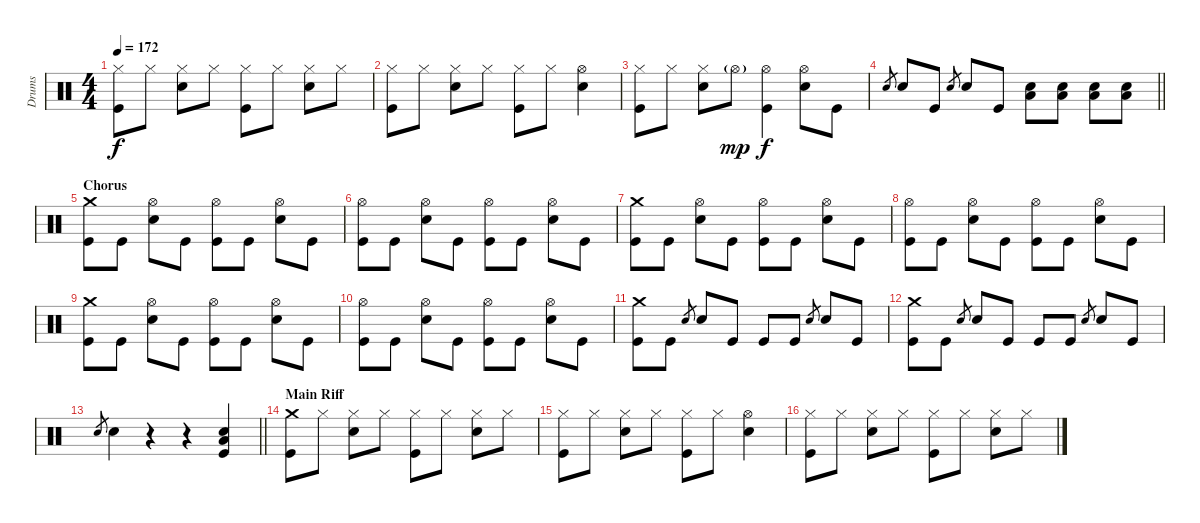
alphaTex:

\track ("Drums" "Drums") {instrument percussion}
\staff {score}
\articulation defaults
\ts (4 4)
\tempo 172
\clef neutral
\ks c
("Hi-Hat (closed)" "Kick (hit)").8{dy f} "Hi-Hat (closed)".8 ("Hi-Hat (closed)" "Snare (hit) 2").8 "Hi-Hat (closed)".8 ("Hi-Hat (closed)" "Kick (hit)").8 "Hi-Hat (closed)".8 ("Hi-Hat (closed)" "Snare (hit) 2").8 "Hi-Hat (closed)".8 |
("Hi-Hat (closed)" "Kick (hit)").8 "Hi-Hat (closed)".8 ("Hi-Hat (closed)" "Snare (hit) 2").8 "Hi-Hat (closed)".8 ("Hi-Hat (closed)" "Kick (hit)").8 "Hi-Hat (closed)".8 ("Hi-Hat (open)" "Snare (hit) 2").4 |
("Hi-Hat (closed)" "Kick (hit)").8 "Hi-Hat (closed)".8 ("Hi-Hat (closed)" "Snare (hit) 2").8 "Hi-Hat (open)"{g}.8{dy mp} ("Hi-Hat (open)" "Kick (hit)").4{dy f} ("Hi-Hat (open)" "Snare (hit) 2").8 "Kick (hit)".8 |
\barLineRight lightlight "Snare (hit) 2".8{gr} "Snare (hit) 2".8 "Kick (hit)".8 "Snare (hit) 2".8{gr} "Snare (hit) 2".8 "Kick (hit)".8
("Snare (hit) 2" "Low Floor Tom (hit)").8 ("Snare (hit) 2" "Low Floor Tom (hit)").8 ("Snare (hit) 2" "Low Floor Tom (hit)").8 ("Snare (hit) 2" "Low Floor Tom (hit)").8 |
\section ("" "Chorus")
("Crash medium (hit)" "Kick (hit)").8 "Kick (hit)".8 ("Hi-Hat (open)" "Snare (hit) 2").8 "Kick (hit)".8 ("Hi-Hat (open)" "Kick (hit)").8 "Kick (hit)".8 ("Hi-Hat (open)" "Snare (hit) 2").8 "Kick (hit)".8 |
("Hi-Hat (open)" "Kick (hit)").8 "Kick (hit)".8 ("Hi-Hat (open)" "Snare (hit) 2").8 "Kick (hit)".8 ("Hi-Hat (open)" "Kick (hit)").8 "Kick (hit)".8 ("Hi-Hat (open)" "Snare (hit) 2").8 "Kick (hit)".8 |
("Crash medium (hit)" "Kick (hit)").8 "Kick (hit)".8 ("Hi-Hat (open)" "Snare (hit) 2").8 "Kick (hit)".8 ("Hi-Hat (open)" "Kick (hit)").8 "Kick (hit)".8 ("Hi-Hat (open)" "Snare (hit) 2").8 "Kick (hit)".8 |
("Hi-Hat (open)" "Kick (hit)").8 "Kick (hit)".8 ("Hi-Hat (open)" "Snare (hit) 2").8 "Kick (hit)".8 ("Hi-Hat (open)" "Kick (hit)").8 "Kick (hit)".8 ("Hi-Hat (open)" "Snare (hit) 2").8 "Kick (hit)".8 |
("Crash medium (hit)" "Kick (hit)").8 "Kick (hit)".8 ("Hi-Hat (open)" "Snare (hit) 2").8 "Kick (hit)".8 ("Hi-Hat (open)" "Kick (hit)").8 "Kick (hit)".8 ("Hi-Hat (open)" "Snare (hit) 2").8 "Kick (hit)".8 |
("Hi-Hat (open)" "Kick (hit)").8 "Kick (hit)".8 ("Hi-Hat (open)" "Snare (hit) 2").8 "Kick (hit)".8 ("Hi-Hat (open)" "Kick (hit)").8 "Kick (hit)".8 ("Hi-Hat (open)" "Snare (hit) 2").8 "Kick (hit)".8 |
("Crash medium (hit)" "Kick (hit)").8 "Kick (hit)".8 "Snare (hit) 2".8{gr} "Snare (hit) 2".8 "Kick (hit)".8 "Kick (hit)".8 "Kick (hit)".8 "Snare (hit) 2".8{gr} "Snare (hit) 2".8 "Kick (hit)".8 |
("Crash medium (hit)" "Kick (hit)").8 "Kick (hit)".8 "Snare (hit) 2".8{gr} "Snare (hit) 2".8 "Kick (hit)".8 "Kick (hit)".8 "Kick (hit)".8 "Snare (hit) 2".8{gr} "Snare (hit) 2".8 "Kick (hit)".8 |
\barLineRight lightlight "Snare (hit) 2".8{gr} "Snare (hit) 2".4
r.4 r.4 ("Snare (hit) 2" "Low Floor Tom (hit)" "Kick (hit)").4 |
\section ("" "Main Riff")
("Crash medium (hit)" "Kick (hit)").8 "Hi-Hat (closed)".8 ("Hi-Hat (closed)" "Snare (hit) 2").8 "Hi-Hat (closed)".8 ("Hi-Hat (closed)" "Kick (hit)").8 "Hi-Hat (closed)".8 ("Hi-Hat (closed)" "Snare (hit) 2").8 "Hi-Hat (closed)".8 |
("Hi-Hat (closed)" "Kick (hit)").8 "Hi-Hat (closed)".8 ("Hi-Hat (closed)" "Snare (hit) 2").8 "Hi-Hat (closed)".8 ("Hi-Hat (closed)" "Kick (hit)").8 "Hi-Hat (closed)".8 ("Hi-Hat (open)" "Snare (hit) 2").4 |
("Hi-Hat (closed)" "Kick (hit)").8 "Hi-Hat (closed)".8 ("Hi-Hat (closed)" "Snare (hit) 2").8 "Hi-Hat (closed)".8 ("Hi-Hat (closed)" "Kick (hit)").8 "Hi-Hat (closed)".8 ("Hi-Hat (closed)" "Snare (hit) 2").8 "Hi-Hat (closed)".8
